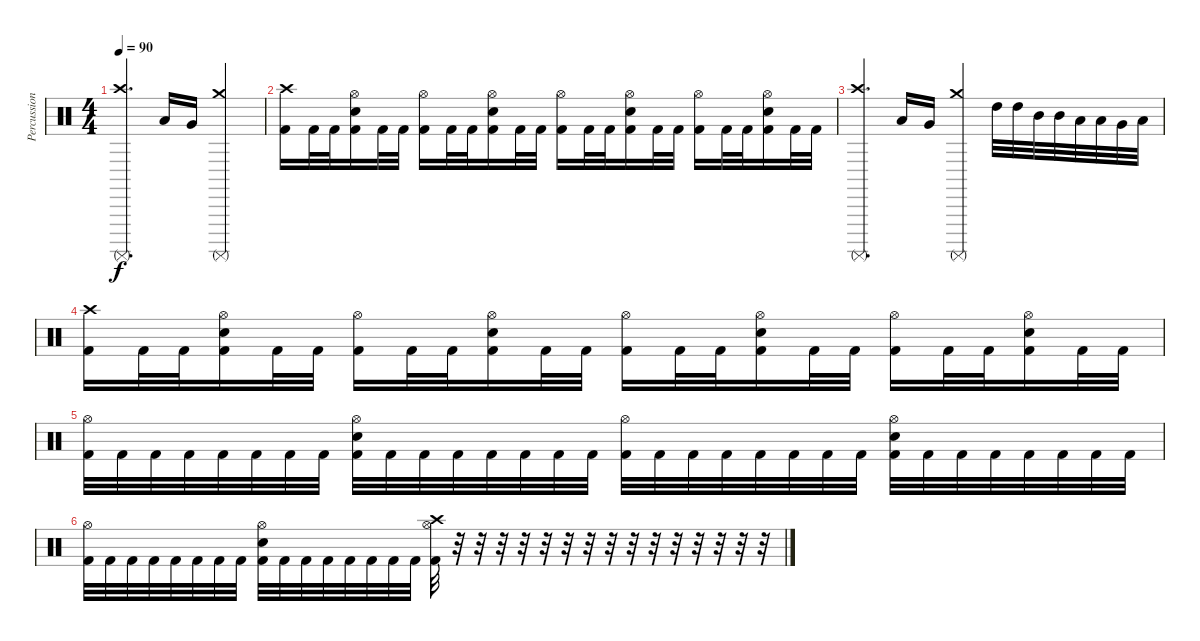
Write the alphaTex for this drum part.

\track ("Percussion" "Percussion") {instrument percussion}
\staff {score}
\articulation defaults
\ts (4 4)
\tempo 90
\clef neutral
\ks c
("Surdo (mute)" "Crash high (hit)").4{d dy f} "Low Tom (hit)".16 "Very Low Tom (hit)".16 ("Surdo (mute)" "Crash medium (hit)").2 |
("Kick (hit) 2" "Crash high (hit)").16 "Kick (hit) 2".32 "Kick (hit) 2".32 ("Kick (hit) 2" "Electric Snare (hit)" "Hi-Hat (open)").16 "Kick (hit) 2".32 "Kick (hit) 2".32 ("Kick (hit) 2" "Hi-Hat (open)").16 "Kick (hit) 2".32 "Kick (hit) 2".32 ("Kick (hit) 2" "Electric Snare (hit)" "Hi-Hat (open)").16 "Kick (hit) 2".32 "Kick (hit) 2".32 ("Kick (hit) 2" "Hi-Hat (open)").16 "Kick (hit) 2".32 "Kick (hit) 2".32 ("Kick (hit) 2" "Electric Snare (hit)" "Hi-Hat (open)").16 "Kick (hit) 2".32 "Kick (hit) 2".32 ("Kick (hit) 2" "Hi-Hat (open)").16 "Kick (hit) 2".32 "Kick (hit) 2".32 ("Kick (hit) 2" "Electric Snare (hit)" "Hi-Hat (open)").16 "Kick (hit) 2".32 "Kick (hit) 2".32 |
("Surdo (mute)" "Crash high (hit)").4{d} "Low Tom (hit)".16 "Very Low Tom (hit)".16 ("Surdo (mute)" "Crash medium (hit)").4 "High Tom (hit)".32 "High Tom (hit)".32 "Mid Tom (hit)".32 "Mid Tom (hit)".32 "Low Tom (hit)".32 "Low Tom (hit)".32 "Very Low Tom (hit)".32 "Low Floor Tom (hit)".32 |
("Kick (hit) 2" "Crash high (hit)").16 "Kick (hit) 2".32 "Kick (hit) 2".32 ("Kick (hit) 2" "Electric Snare (hit)" "Hi-Hat (open)").16 "Kick (hit) 2".32 "Kick (hit) 2".32 ("Kick (hit) 2" "Hi-Hat (open)").16 "Kick (hit) 2".32 "Kick (hit) 2".32 ("Kick (hit) 2" "Electric Snare (hit)" "Hi-Hat (open)").16 "Kick (hit) 2".32 "Kick (hit) 2".32 ("Kick (hit) 2" "Hi-Hat (open)").16 "Kick (hit) 2".32 "Kick (hit) 2".32 ("Kick (hit) 2" "Electric Snare (hit)" "Hi-Hat (open)").16 "Kick (hit) 2".32 "Kick (hit) 2".32 ("Kick (hit) 2" "Hi-Hat (open)").16 "Kick (hit) 2".32 "Kick (hit) 2".32 ("Kick (hit) 2" "Electric Snare (hit)" "Hi-Hat (open)").16 "Kick (hit) 2".32 "Kick (hit) 2".32 |
("Kick (hit) 2" "Hi-Hat (open)").32 "Kick (hit) 2".32 "Kick (hit) 2".32 "Kick (hit) 2".32 "Kick (hit) 2".32 "Kick (hit) 2".32 "Kick (hit) 2".32 "Kick (hit) 2".32 ("Kick (hit) 2" "Hi-Hat (open)" "Electric Snare (hit)").32 "Kick (hit) 2".32 "Kick (hit) 2".32 "Kick (hit) 2".32 "Kick (hit) 2".32 "Kick (hit) 2".32 "Kick (hit) 2".32 "Kick (hit) 2".32 ("Kick (hit) 2" "Hi-Hat (open)").32 "Kick (hit) 2".32 "Kick (hit) 2".32 "Kick (hit) 2".32 "Kick (hit) 2".32 "Kick (hit) 2".32 "Kick (hit) 2".32 "Kick (hit) 2".32 ("Kick (hit) 2" "Hi-Hat (open)" "Electric Snare (hit)").32 "Kick (hit) 2".32 "Kick (hit) 2".32 "Kick (hit) 2".32 "Kick (hit) 2".32 "Kick (hit) 2".32 "Kick (hit) 2".32 "Kick (hit) 2".32 |
("Kick (hit) 2" "Hi-Hat (open)").32 "Kick (hit) 2".32 "Kick (hit) 2".32 "Kick (hit) 2".32 "Kick (hit) 2".32 "Kick (hit) 2".32 "Kick (hit) 2".32 "Kick (hit) 2".32 ("Kick (hit) 2" "Hi-Hat (open)" "Electric Snare (hit)").32 "Kick (hit) 2".32 "Kick (hit) 2".32 "Kick (hit) 2".32 "Kick (hit) 2".32 "Kick (hit) 2".32 "Kick (hit) 2".32 "Kick (hit) 2".32 ("Kick (hit) 2" "Crash high (hit)" "Hi-Hat (open)").32 r.32 r.32 r.32 r.32 r.32 r.32 r.32 r.32 r.32 r.32 r.32 r.32 r.32 r.32 r.32
